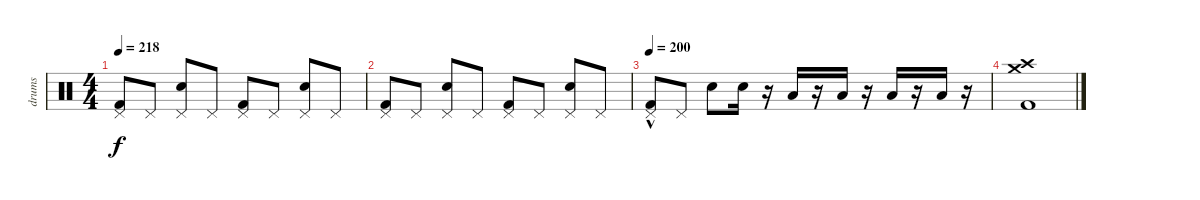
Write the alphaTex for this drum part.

\track ("drums" "drums") {instrument percussion}
\staff {score}
\articulation defaults
\ts (4 4)
\tempo 218
\clef neutral
\ks c
("Kick (hit) 2" "Pedal Hi-Hat (hit)").8{dy f} "Pedal Hi-Hat (hit)".8 ("Snare (hit) 2" "Pedal Hi-Hat (hit)").8 "Pedal Hi-Hat (hit)".8 ("Kick (hit) 2" "Pedal Hi-Hat (hit)").8 "Pedal Hi-Hat (hit)".8 ("Snare (hit) 2" "Pedal Hi-Hat (hit)").8 "Pedal Hi-Hat (hit)".8 |
("Kick (hit) 2" "Pedal Hi-Hat (hit)").8 "Pedal Hi-Hat (hit)".8 ("Snare (hit) 2" "Pedal Hi-Hat (hit)").8 "Pedal Hi-Hat (hit)".8 ("Kick (hit) 2" "Pedal Hi-Hat (hit)").8 "Pedal Hi-Hat (hit)".8 ("Snare (hit) 2" "Pedal Hi-Hat (hit)").8 "Pedal Hi-Hat (hit)".8 |
\tempo 200
("Kick (hit) 2"{hac} "Pedal Hi-Hat (hit)").8 "Pedal Hi-Hat (hit)".8 "Snare (hit) 2".8 "Snare (hit) 2".16 r.16 "Low Tom (hit)".16 r.16 "Low Tom (hit)".16 r.16 "Low Floor Tom (hit)".16 r.16 "Low Floor Tom (hit)".16 r.16 |
("Kick (hit) 2" "Crash high (hit)" "Crash medium (hit)").1
